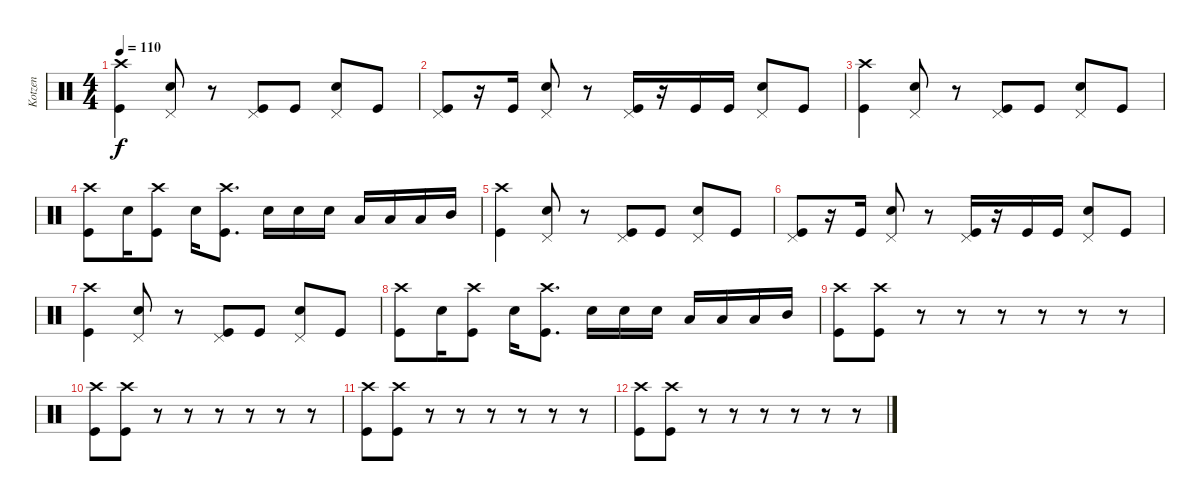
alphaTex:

\track ("Kotzen" "Kotzen") {instrument percussion}
\staff {score}
\articulation defaults
\ts (4 4)
\tempo 110
\clef neutral
\ks c
("Crash high (hit)" "Kick (hit)").4{dy f} ("Pedal Hi-Hat (hit)" "Snare (hit) 2").8 r.8 ("Pedal Hi-Hat (hit)" "Kick (hit)").8 "Kick (hit)".8 ("Pedal Hi-Hat (hit)" "Snare (hit) 2").8 "Kick (hit)".8 |
("Pedal Hi-Hat (hit)" "Kick (hit)").8 r.16 "Kick (hit)".16 ("Pedal Hi-Hat (hit)" "Snare (hit) 2").8 r.8 ("Pedal Hi-Hat (hit)" "Kick (hit)").16 r.16 "Kick (hit)".16 "Kick (hit)".16 ("Pedal Hi-Hat (hit)" "Snare (hit) 2").8 "Kick (hit)".8 |
("Crash high (hit)" "Kick (hit)").4 ("Pedal Hi-Hat (hit)" "Snare (hit) 2").8 r.8 ("Pedal Hi-Hat (hit)" "Kick (hit)").8 "Kick (hit)".8 ("Pedal Hi-Hat (hit)" "Snare (hit) 2").8 "Kick (hit)".8 |
("Crash high (hit)" "Kick (hit)").8 "Snare (hit) 2".16 ("Crash high (hit)" "Kick (hit)").8 "Snare (hit) 2".16 ("Crash high (hit)" "Kick (hit)").8{d} "Snare (hit) 2".16 "Snare (hit) 2".16 "Snare (hit) 2".16 "Low Tom (hit)".16 "Low Tom (hit)".16 "Low Tom (hit)".16 "Mid Tom (hit)".16 |
("Crash high (hit)" "Kick (hit)").4 ("Pedal Hi-Hat (hit)" "Snare (hit) 2").8 r.8 ("Pedal Hi-Hat (hit)" "Kick (hit)").8 "Kick (hit)".8 ("Pedal Hi-Hat (hit)" "Snare (hit) 2").8 "Kick (hit)".8 |
("Pedal Hi-Hat (hit)" "Kick (hit)").8 r.16 "Kick (hit)".16 ("Pedal Hi-Hat (hit)" "Snare (hit) 2").8 r.8 ("Pedal Hi-Hat (hit)" "Kick (hit)").16 r.16 "Kick (hit)".16 "Kick (hit)".16 ("Pedal Hi-Hat (hit)" "Snare (hit) 2").8 "Kick (hit)".8 |
("Crash high (hit)" "Kick (hit)").4 ("Pedal Hi-Hat (hit)" "Snare (hit) 2").8 r.8 ("Pedal Hi-Hat (hit)" "Kick (hit)").8 "Kick (hit)".8 ("Pedal Hi-Hat (hit)" "Snare (hit) 2").8 "Kick (hit)".8 |
("Crash high (hit)" "Kick (hit)").8 "Snare (hit) 2".16 ("Crash high (hit)" "Kick (hit)").8 "Snare (hit) 2".16 ("Crash high (hit)" "Kick (hit)").8{d} "Snare (hit) 2".16 "Snare (hit) 2".16 "Snare (hit) 2".16 "Low Tom (hit)".16 "Low Tom (hit)".16 "Low Tom (hit)".16 "Mid Tom (hit)".16 |
("Crash high (hit)" "Kick (hit)").8 ("Crash high (hit)" "Kick (hit)").8 r.8 r.8 r.8 r.8 r.8 r.8 |
("Crash high (hit)" "Kick (hit)").8 ("Crash high (hit)" "Kick (hit)").8 r.8 r.8 r.8 r.8 r.8 r.8 |
("Crash high (hit)" "Kick (hit)").8 ("Crash high (hit)" "Kick (hit)").8 r.8 r.8 r.8 r.8 r.8 r.8 |
("Crash high (hit)" "Kick (hit)").8 ("Crash high (hit)" "Kick (hit)").8 r.8 r.8 r.8 r.8 r.8 r.8
